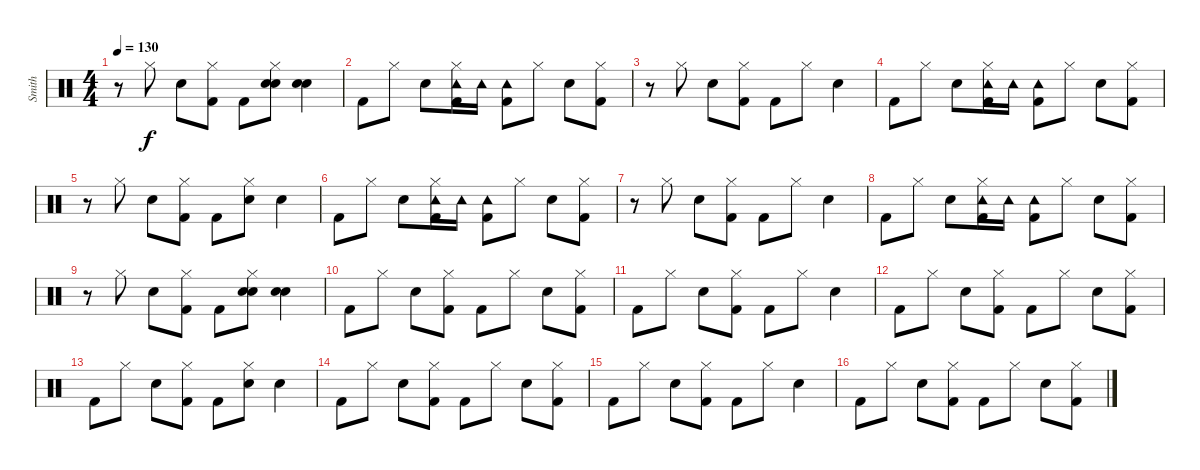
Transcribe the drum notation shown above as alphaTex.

\track ("Smith" "Smith") {instrument percussion}
\staff {score}
\articulation defaults
\ts (4 4)
\tempo 130
\clef neutral
\ks c
r.8{dy f} "Hi-Hat (closed)".8 "Snare (hit) 2".8 ("Hi-Hat (closed)" "Kick (hit) 2").8 "Kick (hit) 2".8 ("Hand Clap (hit)" "Hi-Hat (closed)" "Snare (hit) 2").8 ("Hand Clap (hit)" "Snare (hit) 2").4 |
"Kick (hit) 2".8 "Hi-Hat (closed)".8 "Snare (hit) 2".8 ("Tambourine (hit)" "Hi-Hat (closed)" "Kick (hit) 2").16 "Tambourine (hit)".16 ("Tambourine (hit)" "Kick (hit) 2").8 "Hi-Hat (closed)".8 "Snare (hit) 2".8 ("Hi-Hat (closed)" "Kick (hit) 2").8 |
r.8 "Hi-Hat (closed)".8 "Snare (hit) 2".8 ("Hi-Hat (closed)" "Kick (hit) 2").8 "Kick (hit) 2".8 "Hi-Hat (closed)".8 "Snare (hit) 2".4 |
"Kick (hit) 2".8 "Hi-Hat (closed)".8 "Snare (hit) 2".8 ("Tambourine (hit)" "Hi-Hat (closed)" "Kick (hit) 2").16 "Tambourine (hit)".16 ("Tambourine (hit)" "Kick (hit) 2").8 "Hi-Hat (closed)".8 "Snare (hit) 2".8 ("Hi-Hat (closed)" "Kick (hit) 2").8 |
r.8 "Hi-Hat (closed)".8 "Snare (hit) 2".8 ("Hi-Hat (closed)" "Kick (hit) 2").8 "Kick (hit) 2".8 ("Hi-Hat (closed)" "Snare (hit) 2").8 "Snare (hit) 2".4 |
"Kick (hit) 2".8 "Hi-Hat (closed)".8 "Snare (hit) 2".8 ("Tambourine (hit)" "Hi-Hat (closed)" "Kick (hit) 2").16 "Tambourine (hit)".16 ("Tambourine (hit)" "Kick (hit) 2").8 "Hi-Hat (closed)".8 "Snare (hit) 2".8 ("Hi-Hat (closed)" "Kick (hit) 2").8 |
r.8 "Hi-Hat (closed)".8 "Snare (hit) 2".8 ("Hi-Hat (closed)" "Kick (hit) 2").8 "Kick (hit) 2".8 "Hi-Hat (closed)".8 "Snare (hit) 2".4 |
"Kick (hit) 2".8 "Hi-Hat (closed)".8 "Snare (hit) 2".8 ("Tambourine (hit)" "Hi-Hat (closed)" "Kick (hit) 2").16 "Tambourine (hit)".16 ("Tambourine (hit)" "Kick (hit) 2").8 "Hi-Hat (closed)".8 "Snare (hit) 2".8 ("Hi-Hat (closed)" "Kick (hit) 2").8 |
r.8 "Hi-Hat (closed)".8 "Snare (hit) 2".8 ("Hi-Hat (closed)" "Kick (hit) 2").8 "Kick (hit) 2".8 ("Hand Clap (hit)" "Hi-Hat (closed)" "Snare (hit) 2").8 ("Hand Clap (hit)" "Snare (hit) 2").4 |
"Kick (hit) 2".8 "Hi-Hat (closed)".8 "Snare (hit) 2".8 ("Hi-Hat (closed)" "Kick (hit) 2").8 "Kick (hit) 2".8 "Hi-Hat (closed)".8 "Snare (hit) 2".8 ("Hi-Hat (closed)" "Kick (hit) 2").8 |
"Kick (hit) 2".8 "Hi-Hat (closed)".8 "Snare (hit) 2".8 ("Hi-Hat (closed)" "Kick (hit) 2").8 "Kick (hit) 2".8 "Hi-Hat (closed)".8 "Snare (hit) 2".4 |
"Kick (hit) 2".8 "Hi-Hat (closed)".8 "Snare (hit) 2".8 ("Hi-Hat (closed)" "Kick (hit) 2").8 "Kick (hit) 2".8 "Hi-Hat (closed)".8 "Snare (hit) 2".8 ("Hi-Hat (closed)" "Kick (hit) 2").8 |
"Kick (hit) 2".8 "Hi-Hat (closed)".8 "Snare (hit) 2".8 ("Hi-Hat (closed)" "Kick (hit) 2").8 "Kick (hit) 2".8 ("Hi-Hat (closed)" "Snare (hit) 2").8 "Snare (hit) 2".4 |
"Kick (hit) 2".8 "Hi-Hat (closed)".8 "Snare (hit) 2".8 ("Hi-Hat (closed)" "Kick (hit) 2").8 "Kick (hit) 2".8 "Hi-Hat (closed)".8 "Snare (hit) 2".8 ("Hi-Hat (closed)" "Kick (hit) 2").8 |
"Kick (hit) 2".8 "Hi-Hat (closed)".8 "Snare (hit) 2".8 ("Hi-Hat (closed)" "Kick (hit) 2").8 "Kick (hit) 2".8 "Hi-Hat (closed)".8 "Snare (hit) 2".4 |
"Kick (hit) 2".8 "Hi-Hat (closed)".8 "Snare (hit) 2".8 ("Hi-Hat (closed)" "Kick (hit) 2").8 "Kick (hit) 2".8 "Hi-Hat (closed)".8 "Snare (hit) 2".8 ("Hi-Hat (closed)" "Kick (hit) 2").8
